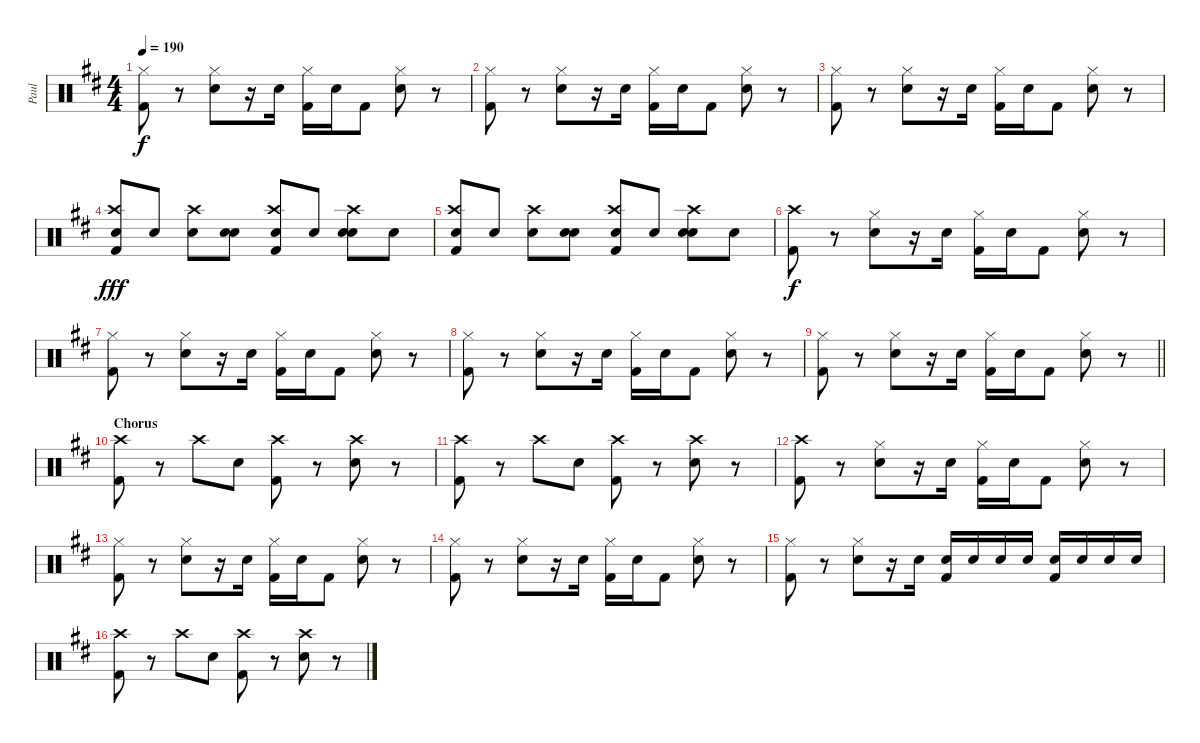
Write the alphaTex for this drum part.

\track ("Paul" "Paul") {instrument percussion}
\staff {score}
\articulation defaults
\ts (4 4)
\tempo 190
\clef neutral
\ks d
("Hi-Hat (closed)" "Kick (hit) 2").8{dy f} r.8 ("Hi-Hat (closed)" "Electric Snare (hit)").8 r.16 "Electric Snare (hit)".16 ("Hi-Hat (closed)" "Kick (hit) 2").16 "Electric Snare (hit)".16 "Kick (hit) 2".8 ("Hi-Hat (closed)" "Electric Snare (hit)").8 r.8 |
("Hi-Hat (closed)" "Kick (hit) 2").8 r.8 ("Hi-Hat (closed)" "Electric Snare (hit)").8 r.16 "Electric Snare (hit)".16 ("Hi-Hat (closed)" "Kick (hit) 2").16 "Electric Snare (hit)".16 "Kick (hit) 2".8 ("Hi-Hat (closed)" "Electric Snare (hit)").8 r.8 |
("Hi-Hat (closed)" "Kick (hit) 2").8 r.8 ("Hi-Hat (closed)" "Electric Snare (hit)").8 r.16 "Electric Snare (hit)".16 ("Hi-Hat (closed)" "Kick (hit) 2").16 "Electric Snare (hit)".16 "Kick (hit) 2".8 ("Hi-Hat (closed)" "Electric Snare (hit)").8 r.8 |
("Crash high (hit)" "Hand Clap (hit)" "Kick (hit) 2").8{dy fff} "Hand Clap (hit)".8 ("Crash high (hit)" "Hand Clap (hit)").8 ("Hand Clap (hit)" "Electric Snare (hit)").8 ("Crash high (hit)" "Hand Clap (hit)" "Kick (hit) 2").8 "Hand Clap (hit)".8 ("Crash high (hit)" "Hand Clap (hit)" "Electric Snare (hit)").8 "Hand Clap (hit)".8 |
("Crash high (hit)" "Hand Clap (hit)" "Kick (hit) 2").8 "Hand Clap (hit)".8 ("Crash high (hit)" "Hand Clap (hit)").8 ("Hand Clap (hit)" "Electric Snare (hit)").8 ("Crash high (hit)" "Hand Clap (hit)" "Kick (hit) 2").8 "Hand Clap (hit)".8 ("Crash high (hit)" "Hand Clap (hit)" "Electric Snare (hit)").8 "Hand Clap (hit)".8 |
("Crash high (hit)" "Kick (hit) 2").8{dy f} r.8 ("Hi-Hat (closed)" "Electric Snare (hit)").8 r.16 "Electric Snare (hit)".16 ("Hi-Hat (closed)" "Kick (hit) 2").16 "Electric Snare (hit)".16 "Kick (hit) 2".8 ("Hi-Hat (closed)" "Electric Snare (hit)").8 r.8 |
("Hi-Hat (closed)" "Kick (hit) 2").8 r.8 ("Hi-Hat (closed)" "Electric Snare (hit)").8 r.16 "Electric Snare (hit)".16 ("Hi-Hat (closed)" "Kick (hit) 2").16 "Electric Snare (hit)".16 "Kick (hit) 2".8 ("Hi-Hat (closed)" "Electric Snare (hit)").8 r.8 |
("Hi-Hat (closed)" "Kick (hit) 2").8 r.8 ("Hi-Hat (closed)" "Electric Snare (hit)").8 r.16 "Electric Snare (hit)".16 ("Hi-Hat (closed)" "Kick (hit) 2").16 "Electric Snare (hit)".16 "Kick (hit) 2".8 ("Hi-Hat (closed)" "Electric Snare (hit)").8 r.8 |
\barLineRight lightlight
("Hi-Hat (closed)" "Kick (hit) 2").8 r.8 ("Hi-Hat (closed)" "Electric Snare (hit)").8 r.16 "Electric Snare (hit)".16 ("Hi-Hat (closed)" "Kick (hit) 2").16 "Electric Snare (hit)".16 "Kick (hit) 2".8 ("Hi-Hat (closed)" "Electric Snare (hit)").8 r.8 |
\section ("" "Chorus")
("Crash high (hit)" "Kick (hit) 2").8 r.8 "Crash high (hit)".8 "Electric Snare (hit)".8 ("Crash high (hit)" "Kick (hit) 2").8 r.8 ("Crash high (hit)" "Electric Snare (hit)").8 r.8 |
("Crash high (hit)" "Kick (hit) 2").8 r.8 "Crash high (hit)".8 "Electric Snare (hit)".8 ("Crash high (hit)" "Kick (hit) 2").8 r.8 ("Crash high (hit)" "Electric Snare (hit)").8 r.8 |
("Crash high (hit)" "Kick (hit) 2").8 r.8 ("Hi-Hat (closed)" "Electric Snare (hit)").8 r.16 "Electric Snare (hit)".16 ("Hi-Hat (closed)" "Kick (hit) 2").16 "Electric Snare (hit)".16 "Kick (hit) 2".8 ("Hi-Hat (closed)" "Electric Snare (hit)").8 r.8 |
("Hi-Hat (closed)" "Kick (hit) 2").8 r.8 ("Hi-Hat (closed)" "Electric Snare (hit)").8 r.16 "Electric Snare (hit)".16 ("Hi-Hat (closed)" "Kick (hit) 2").16 "Electric Snare (hit)".16 "Kick (hit) 2".8 ("Hi-Hat (closed)" "Electric Snare (hit)").8 r.8 |
("Hi-Hat (closed)" "Kick (hit) 2").8 r.8 ("Hi-Hat (closed)" "Electric Snare (hit)").8 r.16 "Electric Snare (hit)".16 ("Hi-Hat (closed)" "Kick (hit) 2").16 "Electric Snare (hit)".16 "Kick (hit) 2".8 ("Hi-Hat (closed)" "Electric Snare (hit)").8 r.8 |
("Hi-Hat (closed)" "Kick (hit) 2").8 r.8 ("Hi-Hat (closed)" "Electric Snare (hit)").8 r.16 "Electric Snare (hit)".16 ("Electric Snare (hit)" "Kick (hit) 2").16 "Electric Snare (hit)".16 "Electric Snare (hit)".16 "Electric Snare (hit)".16 ("Electric Snare (hit)" "Kick (hit) 2").16 "Electric Snare (hit)".16 "Electric Snare (hit)".16 "Electric Snare (hit)".16 |
("Crash high (hit)" "Kick (hit) 2").8 r.8 "Crash high (hit)".8 "Electric Snare (hit)".8 ("Crash high (hit)" "Kick (hit) 2").8 r.8 ("Crash high (hit)" "Electric Snare (hit)").8 r.8
